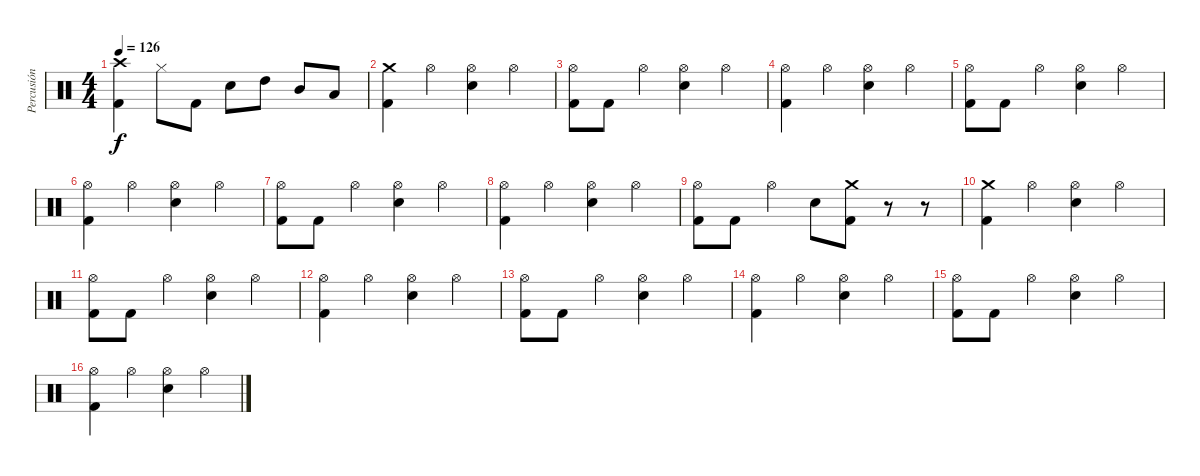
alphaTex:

\track ("Percusión" "Percusión") {instrument percussion}
\staff {score}
\articulation defaults
\ts (4 4)
\tempo 126
\clef neutral
\ks c
("Crash high (hit)" "Kick (hit) 2").4{dy f} "Hi-Hat (closed)".8 "Kick (hit) 2".8 "Electric Snare (hit)".8 "High Tom (hit)".8 "Mid Tom (hit)".8 "Low Tom (hit)".8 |
("Crash medium (hit)" "Kick (hit) 2").4 "Hi-Hat (open)".4 ("Hi-Hat (open)" "Electric Snare (hit)").4 "Hi-Hat (open)".4 |
("Hi-Hat (open)" "Kick (hit) 2").8 "Kick (hit) 2".8 "Hi-Hat (open)".4 ("Hi-Hat (open)" "Electric Snare (hit)").4 "Hi-Hat (open)".4 |
("Hi-Hat (open)" "Kick (hit) 2").4 "Hi-Hat (open)".4 ("Hi-Hat (open)" "Electric Snare (hit)").4 "Hi-Hat (open)".4 |
("Hi-Hat (open)" "Kick (hit) 2").8 "Kick (hit) 2".8 "Hi-Hat (open)".4 ("Hi-Hat (open)" "Electric Snare (hit)").4 "Hi-Hat (open)".4 |
("Hi-Hat (open)" "Kick (hit) 2").4 "Hi-Hat (open)".4 ("Hi-Hat (open)" "Electric Snare (hit)").4 "Hi-Hat (open)".4 |
("Hi-Hat (open)" "Kick (hit) 2").8 "Kick (hit) 2".8 "Hi-Hat (open)".4 ("Hi-Hat (open)" "Electric Snare (hit)").4 "Hi-Hat (open)".4 |
("Hi-Hat (open)" "Kick (hit) 2").4 "Hi-Hat (open)".4 ("Hi-Hat (open)" "Electric Snare (hit)").4 "Hi-Hat (open)".4 |
("Hi-Hat (open)" "Kick (hit) 2").8 "Kick (hit) 2".8 "Hi-Hat (open)".4 "Electric Snare (hit)".8 ("Crash medium (hit)" "Kick (hit) 2").8 r.8{volume 0} r.8 |
("Crash medium (hit)" "Kick (hit) 2").4{volume 16} "Hi-Hat (open)".4 ("Hi-Hat (open)" "Electric Snare (hit)").4 "Hi-Hat (open)".4 |
("Hi-Hat (open)" "Kick (hit) 2").8 "Kick (hit) 2".8 "Hi-Hat (open)".4 ("Hi-Hat (open)" "Electric Snare (hit)").4 "Hi-Hat (open)".4 |
("Hi-Hat (open)" "Kick (hit) 2").4 "Hi-Hat (open)".4 ("Hi-Hat (open)" "Electric Snare (hit)").4 "Hi-Hat (open)".4 |
("Hi-Hat (open)" "Kick (hit) 2").8 "Kick (hit) 2".8 "Hi-Hat (open)".4 ("Hi-Hat (open)" "Electric Snare (hit)").4 "Hi-Hat (open)".4 |
("Hi-Hat (open)" "Kick (hit) 2").4 "Hi-Hat (open)".4 ("Hi-Hat (open)" "Electric Snare (hit)").4 "Hi-Hat (open)".4 |
("Hi-Hat (open)" "Kick (hit) 2").8 "Kick (hit) 2".8 "Hi-Hat (open)".4 ("Hi-Hat (open)" "Electric Snare (hit)").4 "Hi-Hat (open)".4 |
("Hi-Hat (open)" "Kick (hit) 2").4 "Hi-Hat (open)".4 ("Hi-Hat (open)" "Electric Snare (hit)").4 "Hi-Hat (open)".4
